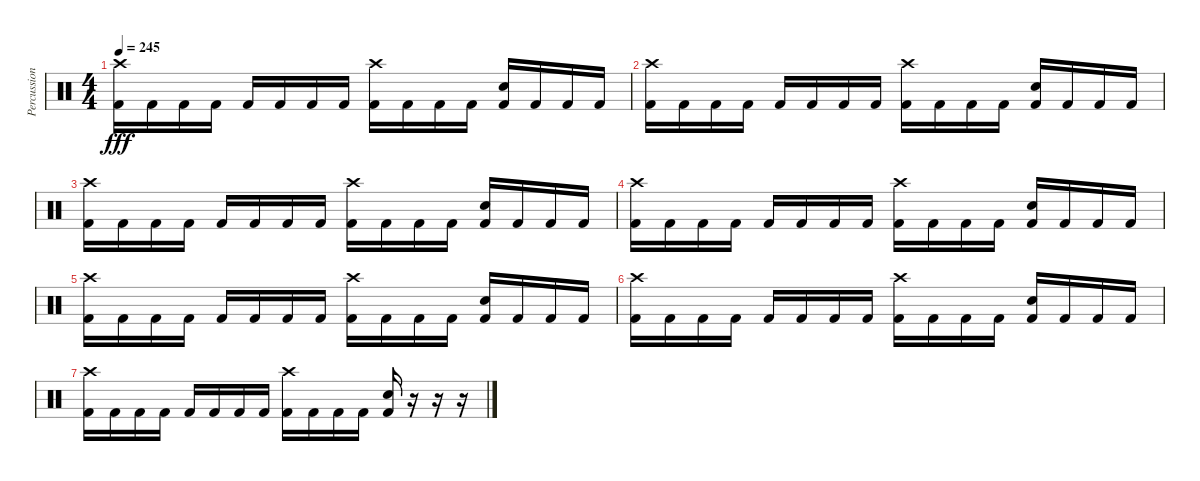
\track ("Percussion" "Percussion") {instrument percussion}
\staff {score}
\articulation defaults
\ts (4 4)
\tempo 245
\clef neutral
\ks c
("Crash high (hit)" "Kick (hit) 2").16{dy fff} "Kick (hit) 2".16 "Kick (hit) 2".16 "Kick (hit) 2".16 "Kick (hit) 2".16 "Kick (hit) 2".16 "Kick (hit) 2".16 "Kick (hit) 2".16 ("Crash high (hit)" "Kick (hit) 2").16 "Kick (hit) 2".16 "Kick (hit) 2".16 "Kick (hit) 2".16 ("Electric Snare (hit)" "Kick (hit) 2").16 "Kick (hit) 2".16 "Kick (hit) 2".16 "Kick (hit) 2".16 |
("Crash high (hit)" "Kick (hit) 2").16 "Kick (hit) 2".16 "Kick (hit) 2".16 "Kick (hit) 2".16 "Kick (hit) 2".16 "Kick (hit) 2".16 "Kick (hit) 2".16 "Kick (hit) 2".16 ("Crash high (hit)" "Kick (hit) 2").16 "Kick (hit) 2".16 "Kick (hit) 2".16 "Kick (hit) 2".16 ("Electric Snare (hit)" "Kick (hit) 2").16 "Kick (hit) 2".16 "Kick (hit) 2".16 "Kick (hit) 2".16 |
("Crash high (hit)" "Kick (hit) 2").16 "Kick (hit) 2".16 "Kick (hit) 2".16 "Kick (hit) 2".16 "Kick (hit) 2".16 "Kick (hit) 2".16 "Kick (hit) 2".16 "Kick (hit) 2".16 ("Crash high (hit)" "Kick (hit) 2").16 "Kick (hit) 2".16 "Kick (hit) 2".16 "Kick (hit) 2".16 ("Electric Snare (hit)" "Kick (hit) 2").16 "Kick (hit) 2".16 "Kick (hit) 2".16 "Kick (hit) 2".16 |
("Crash high (hit)" "Kick (hit) 2").16 "Kick (hit) 2".16 "Kick (hit) 2".16 "Kick (hit) 2".16 "Kick (hit) 2".16 "Kick (hit) 2".16 "Kick (hit) 2".16 "Kick (hit) 2".16 ("Crash high (hit)" "Kick (hit) 2").16 "Kick (hit) 2".16 "Kick (hit) 2".16 "Kick (hit) 2".16 ("Electric Snare (hit)" "Kick (hit) 2").16 "Kick (hit) 2".16 "Kick (hit) 2".16 "Kick (hit) 2".16 |
("Crash high (hit)" "Kick (hit) 2").16 "Kick (hit) 2".16 "Kick (hit) 2".16 "Kick (hit) 2".16 "Kick (hit) 2".16 "Kick (hit) 2".16 "Kick (hit) 2".16 "Kick (hit) 2".16 ("Crash high (hit)" "Kick (hit) 2").16 "Kick (hit) 2".16 "Kick (hit) 2".16 "Kick (hit) 2".16 ("Electric Snare (hit)" "Kick (hit) 2").16 "Kick (hit) 2".16 "Kick (hit) 2".16 "Kick (hit) 2".16 |
("Crash high (hit)" "Kick (hit) 2").16 "Kick (hit) 2".16 "Kick (hit) 2".16 "Kick (hit) 2".16 "Kick (hit) 2".16 "Kick (hit) 2".16 "Kick (hit) 2".16 "Kick (hit) 2".16 ("Crash high (hit)" "Kick (hit) 2").16 "Kick (hit) 2".16 "Kick (hit) 2".16 "Kick (hit) 2".16 ("Electric Snare (hit)" "Kick (hit) 2").16 "Kick (hit) 2".16 "Kick (hit) 2".16 "Kick (hit) 2".16 |
("Crash high (hit)" "Kick (hit) 2").16 "Kick (hit) 2".16 "Kick (hit) 2".16 "Kick (hit) 2".16 "Kick (hit) 2".16 "Kick (hit) 2".16 "Kick (hit) 2".16 "Kick (hit) 2".16 ("Crash high (hit)" "Kick (hit) 2").16 "Kick (hit) 2".16 "Kick (hit) 2".16 "Kick (hit) 2".16 ("Electric Snare (hit)" "Kick (hit) 2").16 r.16 r.16 r.16
